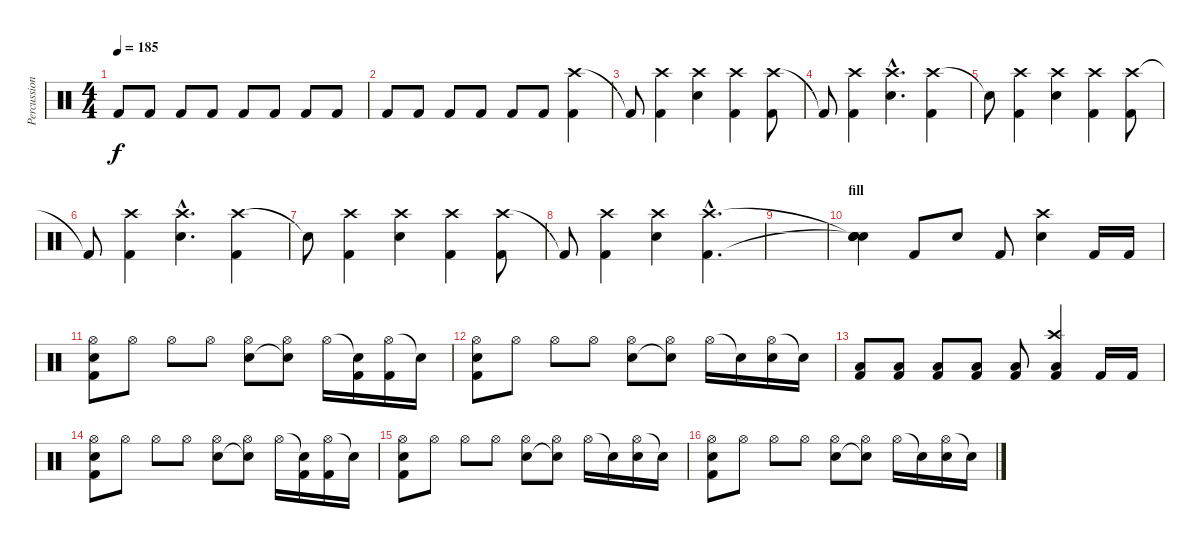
\track ("Percussion" "Percussion") {instrument percussion}
\staff {score}
\articulation defaults
\ts (4 4)
\tempo 185
\clef neutral
\ks c "Kick (hit) 2".8{dy f} "Kick (hit) 2".8 "Kick (hit) 2".8 "Kick (hit) 2".8 "Kick (hit) 2".8 "Kick (hit) 2".8 "Kick (hit) 2".8 "Kick (hit) 2".8
|
"Kick (hit) 2".8 "Kick (hit) 2".8 "Kick (hit) 2".8 "Kick (hit) 2".8 "Kick (hit) 2".8 "Kick (hit) 2".8 ("Crash high (hit)" "Kick (hit) 2").4 |
"Kick (hit) 2"{t}.8 ("Crash high (hit)" "Kick (hit) 2").4 ("Crash high (hit)" "Snare (hit) 2").4 ("Crash high (hit)" "Kick (hit) 2").4 ("Crash high (hit)" "Kick (hit) 2").8 |
"Kick (hit) 2"{t}.8 ("Crash high (hit)" "Kick (hit) 2").4 ("Crash high (hit)"{hac} "Snare (hit) 2"{hac}).4{d} ("Crash high (hit)" "Kick (hit) 2").4 |
"Snare (hit)"{t}.8 ("Crash high (hit)" "Kick (hit) 2").4 ("Crash high (hit)" "Snare (hit) 2").4 ("Crash high (hit)" "Kick (hit) 2").4 ("Crash high (hit)" "Kick (hit) 2").8 |
"Kick (hit) 2"{t}.8 ("Crash high (hit)" "Kick (hit) 2").4 ("Crash high (hit)"{hac} "Snare (hit) 2"{hac}).4{d} ("Crash high (hit)" "Kick (hit) 2").4 |
"Snare (hit)"{t}.8 ("Crash high (hit)" "Kick (hit) 2").4 ("Crash high (hit)" "Snare (hit) 2").4 ("Crash high (hit)" "Kick (hit) 2").4 ("Crash high (hit)" "Kick (hit) 2").8 |
"Kick (hit) 2"{t}.8 ("Crash high (hit)" "Kick (hit) 2").4 ("Crash high (hit)" "Snare (hit) 2").4 ("Crash high (hit)"{hac} "Kick (hit) 2"{hac}).4{d} |
|
\section ("" "fill")
("Snare (hit)"{t} "Snare (hit)"{t} "Snare (hit)" "Snare (hit)").4 "Kick (hit) 2".8 "Snare (hit) 2".8 "Kick (hit) 2".8 ("Crash high (hit)" "Snare (hit) 2").4 "Kick (hit) 2".16 "Kick (hit) 2".16 |
("Hi-Hat (open)" "Snare (hit) 2" "Kick (hit) 2").8 "Hi-Hat (open)".8 "Hi-Hat (open)".8 "Hi-Hat (open)".8 ("Hi-Hat (open)" "Snare (hit) 2").8 ("Hi-Hat (open)" "Snare (hit)"{t}).8 "Hi-Hat (open)".16 ("Snare (hit)"{t} "Kick (hit) 2").16 ("Hi-Hat (open)" "Kick (hit) 2").16 "Snare (hit)"{t}.16 |
("Hi-Hat (open)" "Snare (hit) 2" "Kick (hit) 2").8 "Hi-Hat (open)".8 "Hi-Hat (open)".8 "Hi-Hat (open)".8 ("Hi-Hat (open)" "Snare (hit) 2").8 ("Hi-Hat (open)" "Snare (hit)"{t}).8 "Hi-Hat (open)".16 "Snare (hit)"{t}.16 ("Hi-Hat (open)" "Snare (hit) 2").16 "Snare (hit)"{t}.16 |
("Low Tom (hit)" "Kick (hit) 2").8 ("Low Tom (hit)" "Kick (hit) 2").8 ("Low Tom (hit)" "Kick (hit) 2").8 ("Low Tom (hit)" "Kick (hit) 2").8 ("Low Tom (hit)" "Kick (hit) 2").8 ("Crash high (hit)" "Low Tom (hit)" "Kick (hit) 2").4 "Kick (hit) 2".16 "Kick (hit) 2".16 |
("Hi-Hat (open)" "Snare (hit) 2" "Kick (hit) 2").8 "Hi-Hat (open)".8 "Hi-Hat (open)".8 "Hi-Hat (open)".8 ("Hi-Hat (open)" "Snare (hit) 2").8 ("Hi-Hat (open)" "Snare (hit)"{t}).8 "Hi-Hat (open)".16 ("Snare (hit)"{t} "Kick (hit) 2").16 ("Hi-Hat (open)" "Kick (hit) 2").16 "Snare (hit)"{t}.16 |
("Hi-Hat (open)" "Snare (hit) 2" "Kick (hit) 2").8 "Hi-Hat (open)".8 "Hi-Hat (open)".8 "Hi-Hat (open)".8 ("Hi-Hat (open)" "Snare (hit) 2").8 ("Hi-Hat (open)" "Snare (hit)"{t}).8 "Hi-Hat (open)".16 "Snare (hit)"{t}.16 ("Hi-Hat (open)" "Snare (hit) 2").16 "Snare (hit)"{t}.16 |
("Hi-Hat (open)" "Snare (hit) 2" "Kick (hit) 2").8 "Hi-Hat (open)".8 "Hi-Hat (open)".8 "Hi-Hat (open)".8 ("Hi-Hat (open)" "Snare (hit) 2").8 ("Hi-Hat (open)" "Snare (hit)"{t}).8 "Hi-Hat (open)".16 "Snare (hit)"{t}.16 ("Hi-Hat (open)" "Snare (hit) 2").16 "Snare (hit)"{t}.16
